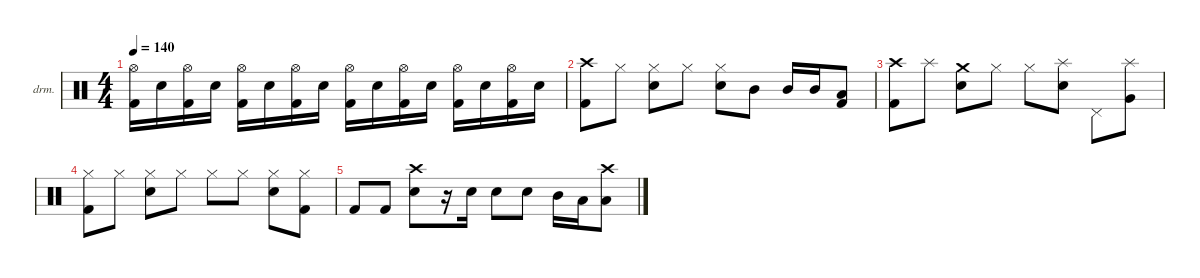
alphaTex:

\defaultSystemsLayout 4
\hideDynamics
\bracketExtendMode nobrackets
\firstSystemTrackNameOrientation horizontal
\otherSystemsTrackNameOrientation horizontal
\track ("Drumkit" "drm.") {instrument percussion}
\staff {score}
\articulation defaults
\ts (4 4)
\tempo 140
\clef neutral
\ks c
("Hi-Hat (open)" "Kick (hit) 2").16{dy f} "Snare (hit) 2".16 ("Hi-Hat (open)" "Kick (hit) 2").16 "Snare (hit) 2".16 ("Hi-Hat (open)" "Kick (hit) 2").16 "Snare (hit) 2".16 ("Hi-Hat (open)" "Kick (hit) 2").16 "Snare (hit) 2".16 ("Hi-Hat (open)" "Kick (hit) 2").16 "Snare (hit) 2".16 ("Hi-Hat (open)" "Kick (hit) 2").16 "Snare (hit) 2".16 ("Hi-Hat (open)" "Kick (hit) 2").16 "Snare (hit) 2".16 ("Hi-Hat (open)" "Kick (hit) 2").16 "Snare (hit) 2".16 |
("Crash high (hit)" "Kick (hit) 2").8{dy ff} "Hi-Hat (closed)".8{dy f} ("Hi-Hat (closed)" "Snare (hit) 2").8 "Hi-Hat (closed)".8 ("Hi-Hat (closed)" "Snare (hit) 2").8 "Mid Tom (hit)".8{dy fff} "Mid Tom (hit)".16 "Mid Tom (hit)".16 ("Low Tom (hit)" "Kick (hit) 2").8 |
("Crash high (hit)" "Kick (hit) 2").8{dy ff} "Splash (hit)".8{dy f} ("Snare (hit) 2" "Crash medium (hit)").8 "Hi-Hat (closed)".8 "Hi-Hat (closed)".8 ("Splash (hit)" "Snare (hit) 2").8{dy ff} "Pedal Hi-Hat (hit)".8 ("Splash (hit)" "Very Low Tom (hit)").8 |
("Hi-Hat (closed)" "Kick (hit) 2").8{dy fff} "Hi-Hat (closed)".8 ("Hi-Hat (closed)" "Snare (hit) 2").8 "Hi-Hat (closed)".8 "Hi-Hat (closed)".8 "Hi-Hat (closed)".8 ("Hi-Hat (closed)" "Snare (hit) 2").8 ("Hi-Hat (closed)" "Kick (hit) 2").8 |
"Kick (hit) 2".8 "Kick (hit) 2".8 ("Crash high (hit)" "Snare (hit) 2").8 r.16 "Snare (hit) 2".16 "Snare (hit) 2".8 "Snare (hit) 2".8 "Mid Tom (hit)".16 "Low Tom (hit)".16 ("Crash high (hit)" "Low Tom (hit)").8
